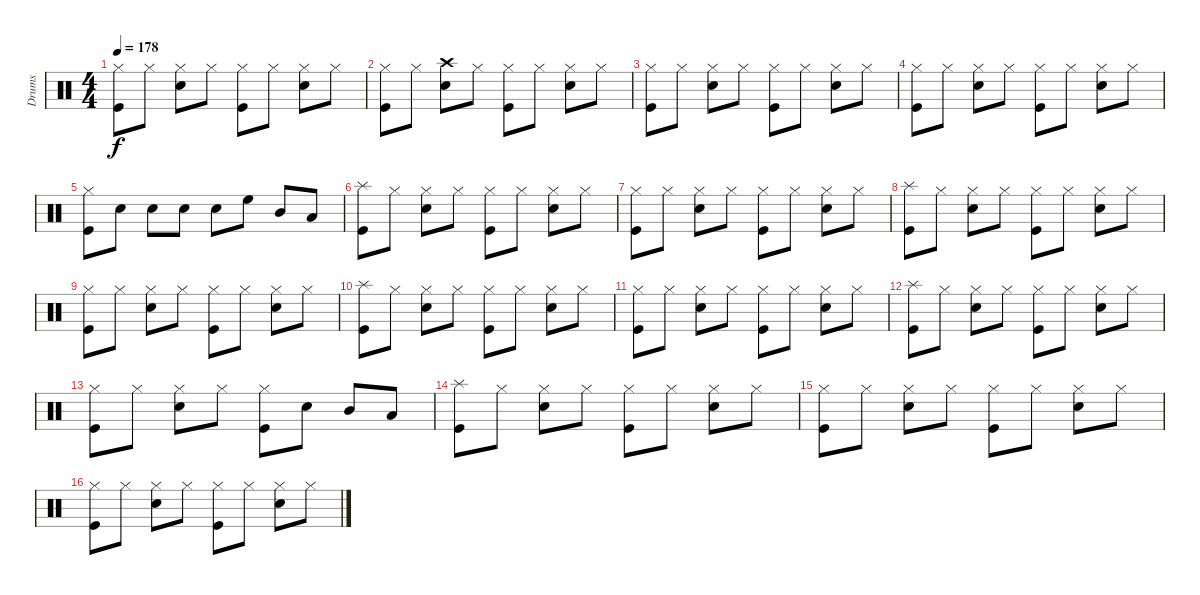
\track ("Drums" "Drums") {instrument percussion}
\staff {score}
\articulation defaults
\ts (4 4)
\tempo 178
\clef neutral
\ks c
("Hi-Hat (closed)" "Kick (hit)").8{dy f} "Hi-Hat (closed)".8 ("Hi-Hat (closed)" "Electric Snare (hit)").8 "Hi-Hat (closed)".8 ("Hi-Hat (closed)" "Kick (hit)").8 "Hi-Hat (closed)".8 ("Hi-Hat (closed)" "Electric Snare (hit)").8 "Hi-Hat (closed)".8 |
("Hi-Hat (closed)" "Kick (hit)").8 "Hi-Hat (closed)".8 ("Crash high (hit)" "Electric Snare (hit)").8 "Hi-Hat (closed)".8 ("Hi-Hat (closed)" "Kick (hit)").8 "Hi-Hat (closed)".8 ("Hi-Hat (closed)" "Electric Snare (hit)").8 "Hi-Hat (closed)".8 |
("Hi-Hat (closed)" "Kick (hit)").8 "Hi-Hat (closed)".8 ("Hi-Hat (closed)" "Electric Snare (hit)").8 "Hi-Hat (closed)".8 ("Hi-Hat (closed)" "Kick (hit)").8 "Hi-Hat (closed)".8 ("Hi-Hat (closed)" "Electric Snare (hit)").8 "Hi-Hat (closed)".8 |
("Hi-Hat (closed)" "Kick (hit)").8 "Hi-Hat (closed)".8 ("Hi-Hat (closed)" "Electric Snare (hit)").8 "Hi-Hat (closed)".8 ("Hi-Hat (closed)" "Kick (hit)").8 "Hi-Hat (closed)".8 ("Hi-Hat (closed)" "Electric Snare (hit)").8 "Hi-Hat (closed)".8 |
("Hi-Hat (closed)" "Kick (hit)").8 "Electric Snare (hit)".8 "Electric Snare (hit)".8 "Electric Snare (hit)".8 "Electric Snare (hit)".8 "High Floor Tom (hit)".8 "Mid Tom (hit)".8 "Low Tom (hit)".8 |
("Splash (hit)" "Kick (hit)").8 "Hi-Hat (closed)".8 ("Hi-Hat (closed)" "Electric Snare (hit)").8 "Hi-Hat (closed)".8 ("Hi-Hat (closed)" "Kick (hit)").8 "Hi-Hat (closed)".8 ("Hi-Hat (closed)" "Electric Snare (hit)").8 "Hi-Hat (closed)".8 |
("Hi-Hat (closed)" "Kick (hit)").8 "Hi-Hat (closed)".8 ("Hi-Hat (closed)" "Electric Snare (hit)").8 "Hi-Hat (closed)".8 ("Hi-Hat (closed)" "Kick (hit)").8 "Hi-Hat (closed)".8 ("Hi-Hat (closed)" "Electric Snare (hit)").8 "Hi-Hat (closed)".8 |
("Splash (hit)" "Kick (hit)").8 "Hi-Hat (closed)".8 ("Hi-Hat (closed)" "Electric Snare (hit)").8 "Hi-Hat (closed)".8 ("Hi-Hat (closed)" "Kick (hit)").8 "Hi-Hat (closed)".8 ("Hi-Hat (closed)" "Electric Snare (hit)").8 "Hi-Hat (closed)".8 |
("Hi-Hat (closed)" "Kick (hit)").8 "Hi-Hat (closed)".8 ("Hi-Hat (closed)" "Electric Snare (hit)").8 "Hi-Hat (closed)".8 ("Hi-Hat (closed)" "Kick (hit)").8 "Hi-Hat (closed)".8 ("Hi-Hat (closed)" "Electric Snare (hit)").8 "Hi-Hat (closed)".8 |
("Splash (hit)" "Kick (hit)").8 "Hi-Hat (closed)".8 ("Hi-Hat (closed)" "Electric Snare (hit)").8 "Hi-Hat (closed)".8 ("Hi-Hat (closed)" "Kick (hit)").8 "Hi-Hat (closed)".8 ("Hi-Hat (closed)" "Electric Snare (hit)").8 "Hi-Hat (closed)".8 |
("Hi-Hat (closed)" "Kick (hit)").8 "Hi-Hat (closed)".8 ("Hi-Hat (closed)" "Electric Snare (hit)").8 "Hi-Hat (closed)".8 ("Hi-Hat (closed)" "Kick (hit)").8 "Hi-Hat (closed)".8 ("Hi-Hat (closed)" "Electric Snare (hit)").8 "Hi-Hat (closed)".8 |
("Splash (hit)" "Kick (hit)").8 "Hi-Hat (closed)".8 ("Hi-Hat (closed)" "Electric Snare (hit)").8 "Hi-Hat (closed)".8 ("Hi-Hat (closed)" "Kick (hit)").8 "Hi-Hat (closed)".8 ("Hi-Hat (closed)" "Electric Snare (hit)").8 "Hi-Hat (closed)".8 |
("Hi-Hat (closed)" "Kick (hit)").8 "Hi-Hat (closed)".8 ("Hi-Hat (closed)" "Electric Snare (hit)").8 "Hi-Hat (closed)".8 ("Hi-Hat (closed)" "Kick (hit)").8 "Electric Snare (hit)".8 "Mid Tom (hit)".8 "Low Tom (hit)".8 |
("Splash (hit)" "Kick (hit)").8 "Hi-Hat (closed)".8 ("Hi-Hat (closed)" "Electric Snare (hit)").8 "Hi-Hat (closed)".8 ("Hi-Hat (closed)" "Kick (hit)").8 "Hi-Hat (closed)".8 ("Hi-Hat (closed)" "Electric Snare (hit)").8 "Hi-Hat (closed)".8 |
("Hi-Hat (closed)" "Kick (hit)").8 "Hi-Hat (closed)".8 ("Hi-Hat (closed)" "Electric Snare (hit)").8 "Hi-Hat (closed)".8 ("Hi-Hat (closed)" "Kick (hit)").8 "Hi-Hat (closed)".8 ("Hi-Hat (closed)" "Electric Snare (hit)").8 "Hi-Hat (closed)".8 |
("Hi-Hat (closed)" "Kick (hit)").8 "Hi-Hat (closed)".8 ("Hi-Hat (closed)" "Electric Snare (hit)").8 "Hi-Hat (closed)".8 ("Hi-Hat (closed)" "Kick (hit)").8 "Hi-Hat (closed)".8 ("Hi-Hat (closed)" "Electric Snare (hit)").8 "Hi-Hat (closed)".8
